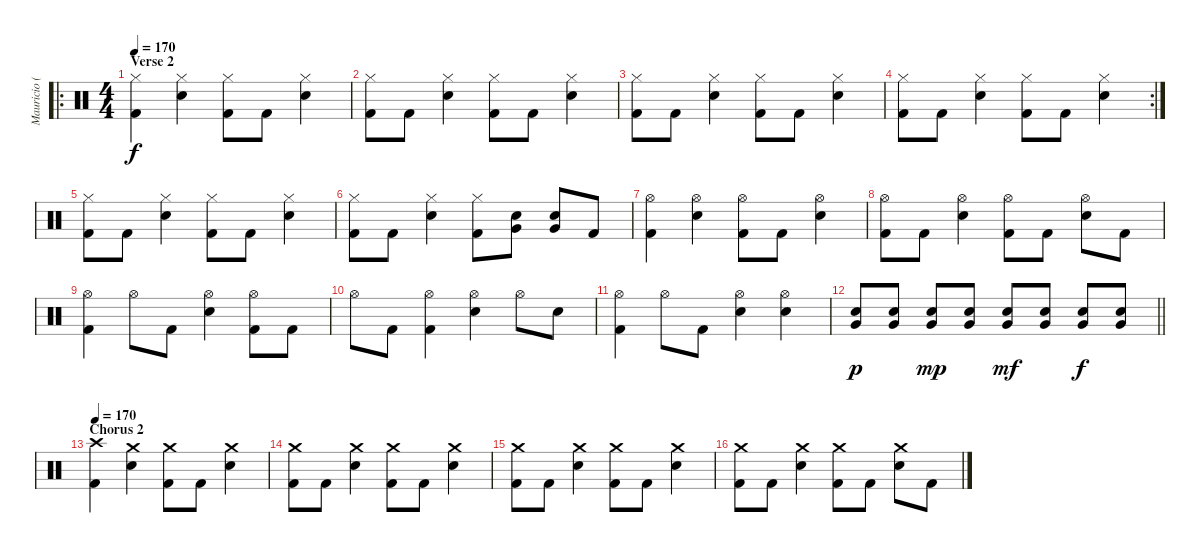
\track ("Mauricio (Drum)" "Mauricio (") {instrument percussion}
\staff {score}
\articulation defaults
\ro
\ts (4 4)
\section ("" "Verse 2")
\tempo 170
\clef neutral
\ks c
("Hi-Hat (closed)" "Kick (hit) 2").4{dy f} ("Hi-Hat (closed)" "Snare (hit) 2").4 ("Hi-Hat (closed)" "Kick (hit) 2").8 "Kick (hit) 2".8 ("Hi-Hat (closed)" "Snare (hit) 2").4 |
("Hi-Hat (closed)" "Kick (hit) 2").8 "Kick (hit) 2".8 ("Hi-Hat (closed)" "Snare (hit) 2").4 ("Hi-Hat (closed)" "Kick (hit) 2").8 "Kick (hit) 2".8 ("Hi-Hat (closed)" "Snare (hit) 2").4 |
("Hi-Hat (closed)" "Kick (hit) 2").8 "Kick (hit) 2".8 ("Hi-Hat (closed)" "Snare (hit) 2").4 ("Hi-Hat (closed)" "Kick (hit) 2").8 "Kick (hit) 2".8 ("Hi-Hat (closed)" "Snare (hit) 2").4 |
\rc 2
("Hi-Hat (closed)" "Kick (hit) 2").8 "Kick (hit) 2".8 ("Hi-Hat (closed)" "Snare (hit) 2").4 ("Hi-Hat (closed)" "Kick (hit) 2").8 "Kick (hit) 2".8 ("Hi-Hat (closed)" "Snare (hit) 2").4 |
("Hi-Hat (closed)" "Kick (hit) 2").8 "Kick (hit) 2".8 ("Hi-Hat (closed)" "Snare (hit) 2").4 ("Hi-Hat (closed)" "Kick (hit) 2").8 "Kick (hit) 2".8 ("Hi-Hat (closed)" "Snare (hit) 2").4 |
("Hi-Hat (closed)" "Kick (hit) 2").8 "Kick (hit) 2".8 ("Hi-Hat (closed)" "Snare (hit) 2").4 ("Hi-Hat (closed)" "Kick (hit) 2").8 ("Very Low Tom (hit)" "Snare (hit) 2").8 ("Very Low Tom (hit)" "Snare (hit) 2").8 "Kick (hit) 2".8 |
("Hi-Hat (open)" "Kick (hit) 2").4 ("Hi-Hat (open)" "Snare (hit) 2").4 ("Hi-Hat (open)" "Kick (hit) 2").8 "Kick (hit) 2".8 ("Hi-Hat (open)" "Snare (hit) 2").4 |
("Hi-Hat (open)" "Kick (hit) 2").8 "Kick (hit) 2".8 ("Hi-Hat (open)" "Snare (hit) 2").4 ("Hi-Hat (open)" "Kick (hit) 2").8 "Kick (hit) 2".8 ("Hi-Hat (open)" "Snare (hit) 2").8 "Kick (hit) 2".8 |
("Hi-Hat (open)" "Kick (hit) 2").4 "Hi-Hat (open)".8 "Kick (hit) 2".8 ("Hi-Hat (open)" "Snare (hit) 2").4 ("Hi-Hat (open)" "Kick (hit) 2").8 "Kick (hit) 2".8 |
"Hi-Hat (open)".8 "Kick (hit) 2".8 ("Hi-Hat (open)" "Kick (hit) 2").4 ("Hi-Hat (open)" "Snare (hit) 2").4 "Hi-Hat (open)".8 "Snare (hit) 2".8 |
("Hi-Hat (open)" "Kick (hit) 2").4 "Hi-Hat (open)".8 "Kick (hit) 2".8 ("Hi-Hat (open)" "Snare (hit) 2").4 ("Hi-Hat (open)" "Snare (hit) 2").4 |
\barLineRight lightlight
("Very Low Tom (hit)" "Snare (hit) 2").8{dy p} ("Very Low Tom (hit)" "Snare (hit) 2").8 ("Very Low Tom (hit)" "Snare (hit) 2").8{dy mp} ("Very Low Tom (hit)" "Snare (hit) 2").8 ("Very Low Tom (hit)" "Snare (hit) 2").8{dy mf} ("Very Low Tom (hit)" "Snare (hit) 2").8 ("Very Low Tom (hit)" "Snare (hit) 2").8{dy f} ("Very Low Tom (hit)" "Snare (hit) 2").8 |
\section ("" "Chorus 2")
\tempo 170
("Crash high (hit)" "Kick (hit) 2").4 ("Crash medium (hit)" "Snare (hit) 2").4 ("Crash medium (hit)" "Kick (hit) 2").8 "Kick (hit) 2".8 ("Crash medium (hit)" "Snare (hit) 2").4 |
("Crash medium (hit)" "Kick (hit) 2").8 "Kick (hit) 2".8 ("Crash medium (hit)" "Snare (hit) 2").4 ("Crash medium (hit)" "Kick (hit) 2").8 "Kick (hit) 2".8 ("Crash medium (hit)" "Snare (hit) 2").4 |
("Crash medium (hit)" "Kick (hit) 2").8 "Kick (hit) 2".8 ("Crash medium (hit)" "Snare (hit) 2").4 ("Crash medium (hit)" "Kick (hit) 2").8 "Kick (hit) 2".8 ("Crash medium (hit)" "Snare (hit) 2").4 |
("Crash medium (hit)" "Kick (hit) 2").8 "Kick (hit) 2".8 ("Crash medium (hit)" "Snare (hit) 2").4 ("Crash medium (hit)" "Kick (hit) 2").8 "Kick (hit) 2".8 ("Crash medium (hit)" "Snare (hit) 2").8 "Kick (hit) 2".8
